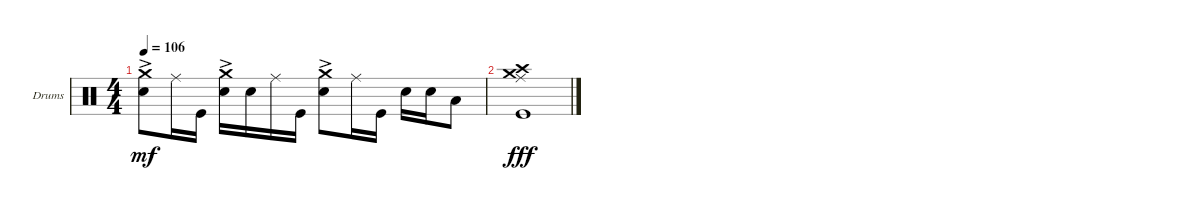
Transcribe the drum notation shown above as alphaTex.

\defaultSystemsLayout 4
\bracketExtendMode groupsimilarinstruments
\firstSystemTrackNameOrientation horizontal
\otherSystemsTrackNameOrientation horizontal
\track ("Drumkit" "Drums") {mute instrument percussion}
\staff {score}
\articulation defaults
\ts (4 4)
\tempo 106
\clef neutral
\ks c
("Snare (hit) 2" "Crash medium (hit)"{ac}).8{dy mf} "Ride (middle)".16 "Kick (hit)".16 ("Snare (hit) 2" "Crash medium (hit)"{ac}).16 "Snare (hit) 2".16 "Ride (middle)".16 "Kick (hit)".16 ("Snare (hit) 2" "Crash medium (hit)"{ac}).8 "Ride (middle)".16 "Kick (hit)".16 "Snare (hit) 2".16 "Snare (hit) 2".16 "Low Tom (hit)".8 |
("Kick (hit)" "Crash medium (hit)" "Crash high (hit)" "Ride (middle)").1{dy fff}
